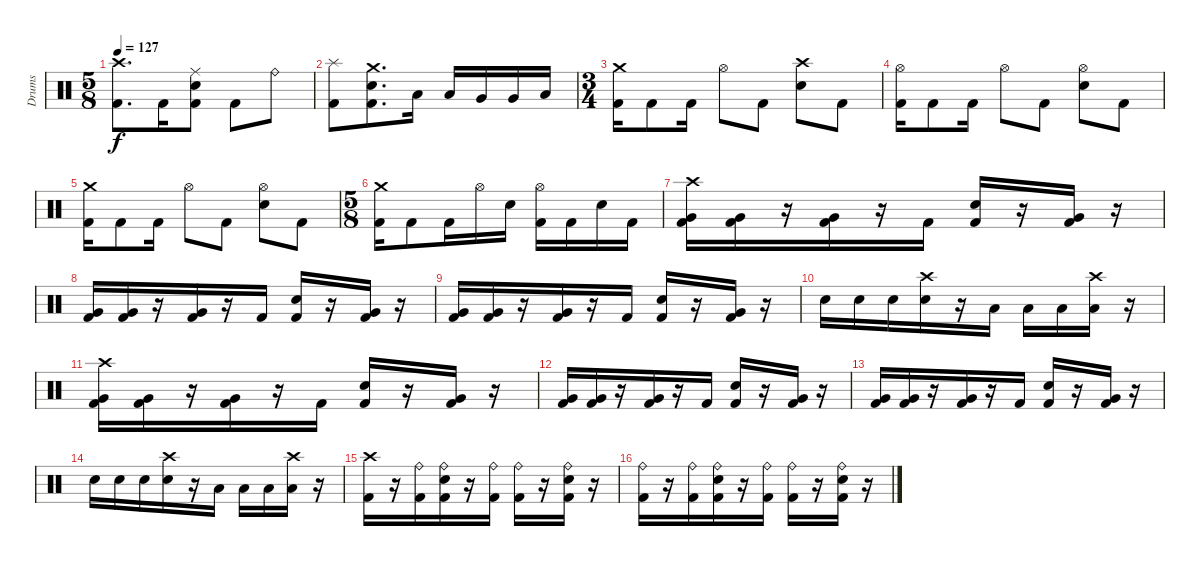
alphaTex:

\track ("Drums" "Drums") {instrument percussion}
\staff {score}
\articulation defaults
\ts (5 8)
\tempo 127
\clef neutral
\ks c
("Crash high (hit)" "Kick (hit) 2").8{d dy f} "Kick (hit) 2".16 ("Ride (middle)" "Electric Snare (hit)" "Kick (hit) 2").8 "Kick (hit) 2".8 "Ride (bell)".8 |
("Splash (hit)" "Kick (hit) 2").8 ("Crash medium (hit)" "Electric Snare (hit)" "Kick (hit) 2").8{d} "Low Tom (hit)".16 "Low Tom (hit)".16 "Very Low Tom (hit)".16 "Very Low Tom (hit)".16 "Low Floor Tom (hit)".16 |
\ts (3 4)
("Kick (hit) 2" "Crash medium (hit)").16 "Kick (hit) 2".8 "Kick (hit) 2".16 "Hi-Hat (open)".8 "Kick (hit) 2".8 ("Electric Snare (hit)" "Crash high (hit)").8 "Kick (hit) 2".8 |
("Kick (hit) 2" "Hi-Hat (open)").16 "Kick (hit) 2".8 "Kick (hit) 2".16 "Hi-Hat (open)".8 "Kick (hit) 2".8 ("Electric Snare (hit)" "Hi-Hat (open)").8 "Kick (hit) 2".8 |
("Kick (hit) 2" "Crash medium (hit)").16 "Kick (hit) 2".8 "Kick (hit) 2".16 "Hi-Hat (open)".8 "Kick (hit) 2".8 ("Electric Snare (hit)" "Hi-Hat (open)").8 "Kick (hit) 2".8 |
\ts (5 8)
("Kick (hit) 2" "Crash medium (hit)").16 "Kick (hit) 2".8 "Kick (hit) 2".16 "Hi-Hat (open)".16 "Electric Snare (hit)".16 ("Kick (hit) 2" "Hi-Hat (open)").16 "Kick (hit) 2".16 "Electric Snare (hit)".16 "Kick (hit) 2".16 |
("Crash high (hit)" "Very Low Tom (hit)" "Kick (hit) 2").16 ("Very Low Tom (hit)" "Kick (hit) 2").16 r.16 ("Very Low Tom (hit)" "Kick (hit) 2").16 r.16 "Kick (hit) 2".16 ("Electric Snare (hit)" "Kick (hit) 2").16 r.16 ("Very Low Tom (hit)" "Kick (hit) 2").16 r.16 |
("Very Low Tom (hit)" "Kick (hit) 2").16 ("Very Low Tom (hit)" "Kick (hit) 2").16 r.16 ("Very Low Tom (hit)" "Kick (hit) 2").16 r.16 "Kick (hit) 2".16 ("Electric Snare (hit)" "Kick (hit) 2").16 r.16 ("Very Low Tom (hit)" "Kick (hit) 2").16 r.16 |
("Very Low Tom (hit)" "Kick (hit) 2").16 ("Very Low Tom (hit)" "Kick (hit) 2").16 r.16 ("Very Low Tom (hit)" "Kick (hit) 2").16 r.16 "Kick (hit) 2".16 ("Electric Snare (hit)" "Kick (hit) 2").16 r.16 ("Very Low Tom (hit)" "Kick (hit) 2").16 r.16 |
"Electric Snare (hit)".16 "Electric Snare (hit)".16 "Electric Snare (hit)".16 ("Crash high (hit)" "Electric Snare (hit)").16 r.16 "Low Tom (hit)".16 "Low Tom (hit)".16 "Low Tom (hit)".16 ("Crash high (hit)" "Low Tom (hit)").16 r.16 |
("Crash high (hit)" "Very Low Tom (hit)" "Kick (hit) 2").16 ("Very Low Tom (hit)" "Kick (hit) 2").16 r.16 ("Very Low Tom (hit)" "Kick (hit) 2").16 r.16 "Kick (hit) 2".16 ("Electric Snare (hit)" "Kick (hit) 2").16 r.16 ("Very Low Tom (hit)" "Kick (hit) 2").16 r.16 |
("Very Low Tom (hit)" "Kick (hit) 2").16 ("Very Low Tom (hit)" "Kick (hit) 2").16 r.16 ("Very Low Tom (hit)" "Kick (hit) 2").16 r.16 "Kick (hit) 2".16 ("Electric Snare (hit)" "Kick (hit) 2").16 r.16 ("Very Low Tom (hit)" "Kick (hit) 2").16 r.16 |
("Very Low Tom (hit)" "Kick (hit) 2").16 ("Very Low Tom (hit)" "Kick (hit) 2").16 r.16 ("Very Low Tom (hit)" "Kick (hit) 2").16 r.16 "Kick (hit) 2".16 ("Electric Snare (hit)" "Kick (hit) 2").16 r.16 ("Very Low Tom (hit)" "Kick (hit) 2").16 r.16 |
"Electric Snare (hit)".16 "Electric Snare (hit)".16 "Electric Snare (hit)".16 ("Crash high (hit)" "Electric Snare (hit)").16 r.16 "Low Tom (hit)".16 "Low Tom (hit)".16 "Low Tom (hit)".16 ("Crash high (hit)" "Low Tom (hit)").16 r.16 |
("Crash high (hit)" "Kick (hit) 2").16 r.16 ("Ride (bell)" "Kick (hit) 2").16 ("Ride (bell)" "Electric Snare (hit)" "Kick (hit) 2").16 r.16 ("Ride (bell)" "Kick (hit) 2").16 ("Ride (bell)" "Kick (hit) 2").16 r.16 ("Ride (bell)" "Electric Snare (hit)" "Kick (hit) 2").16 r.16 |
("Ride (bell)" "Kick (hit) 2").16 r.16 ("Ride (bell)" "Kick (hit) 2").16 ("Ride (bell)" "Electric Snare (hit)" "Kick (hit) 2").16 r.16 ("Ride (bell)" "Kick (hit) 2").16 ("Ride (bell)" "Kick (hit) 2").16 r.16 ("Ride (bell)" "Electric Snare (hit)" "Kick (hit) 2").16 r.16
